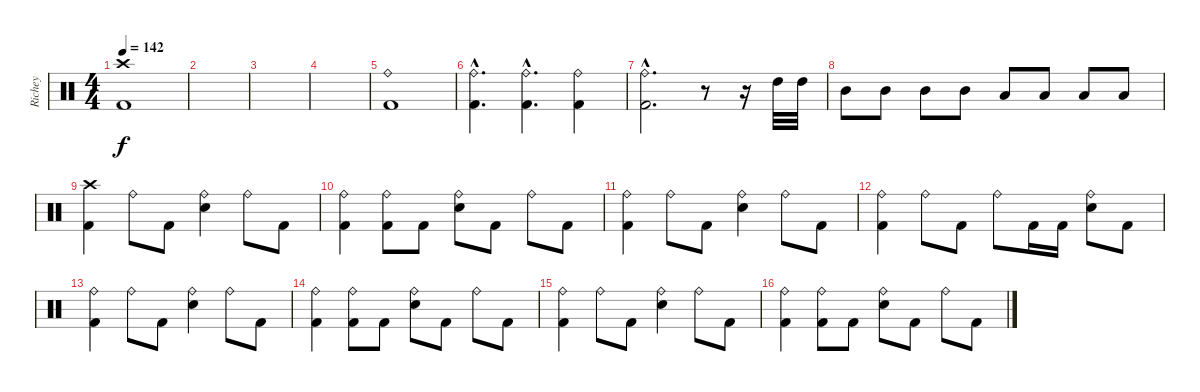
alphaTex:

\track ("Richey" "Richey") {instrument percussion}
\staff {score}
\articulation defaults
\ts (4 4)
\tempo 142
\clef neutral
\ks c
("Crash high (hit)" "Kick (hit) 2").1{dy f} |
|
|
|
("Ride (bell)" "Kick (hit) 2").1 |
("Ride (bell)"{hac} "Kick (hit) 2"{hac}).4{d} ("Ride (bell)"{hac} "Kick (hit) 2"{hac}).4{d} ("Ride (bell)" "Kick (hit) 2").4 |
("Ride (bell)"{hac} "Kick (hit) 2"{hac}).2{d} r.8 r.16 "High Tom (hit)".32 "High Tom (hit)".32 |
"Mid Tom (hit)".8 "Mid Tom (hit)".8 "Mid Tom (hit)".8 "Mid Tom (hit)".8 "Low Tom (hit)".8 "Low Tom (hit)".8 "Low Tom (hit)".8 "Low Tom (hit)".8 |
("Crash high (hit)" "Kick (hit) 2").4 "Ride (bell)".8 "Kick (hit) 2".8 ("Ride (bell)" "Snare (hit) 2").4 "Ride (bell)".8 "Kick (hit) 2".8 |
("Ride (bell)" "Kick (hit) 2").4 ("Ride (bell)" "Kick (hit) 2").8 "Kick (hit) 2".8 ("Ride (bell)" "Snare (hit) 2").8 "Kick (hit) 2".8 "Ride (bell)".8 "Kick (hit) 2".8 |
("Ride (bell)" "Kick (hit) 2").4 "Ride (bell)".8 "Kick (hit) 2".8 ("Ride (bell)" "Snare (hit) 2").4 "Ride (bell)".8 "Kick (hit) 2".8 |
("Ride (bell)" "Kick (hit) 2").4 "Ride (bell)".8 "Kick (hit) 2".8 "Ride (bell)".8 "Kick (hit) 2".16 "Kick (hit) 2".16 ("Ride (bell)" "Snare (hit) 2").8 "Kick (hit) 2".8 |
("Ride (bell)" "Kick (hit) 2").4 "Ride (bell)".8 "Kick (hit) 2".8 ("Ride (bell)" "Snare (hit) 2").4 "Ride (bell)".8 "Kick (hit) 2".8 |
("Ride (bell)" "Kick (hit) 2").4 ("Ride (bell)" "Kick (hit) 2").8 "Kick (hit) 2".8 ("Ride (bell)" "Snare (hit) 2").8 "Kick (hit) 2".8 "Ride (bell)".8 "Kick (hit) 2".8 |
("Ride (bell)" "Kick (hit) 2").4 "Ride (bell)".8 "Kick (hit) 2".8 ("Ride (bell)" "Snare (hit) 2").4 "Ride (bell)".8 "Kick (hit) 2".8 |
("Ride (bell)" "Kick (hit) 2").4 ("Ride (bell)" "Kick (hit) 2").8 "Kick (hit) 2".8 ("Ride (bell)" "Snare (hit) 2").8 "Kick (hit) 2".8 "Ride (bell)".8 "Kick (hit) 2".8
